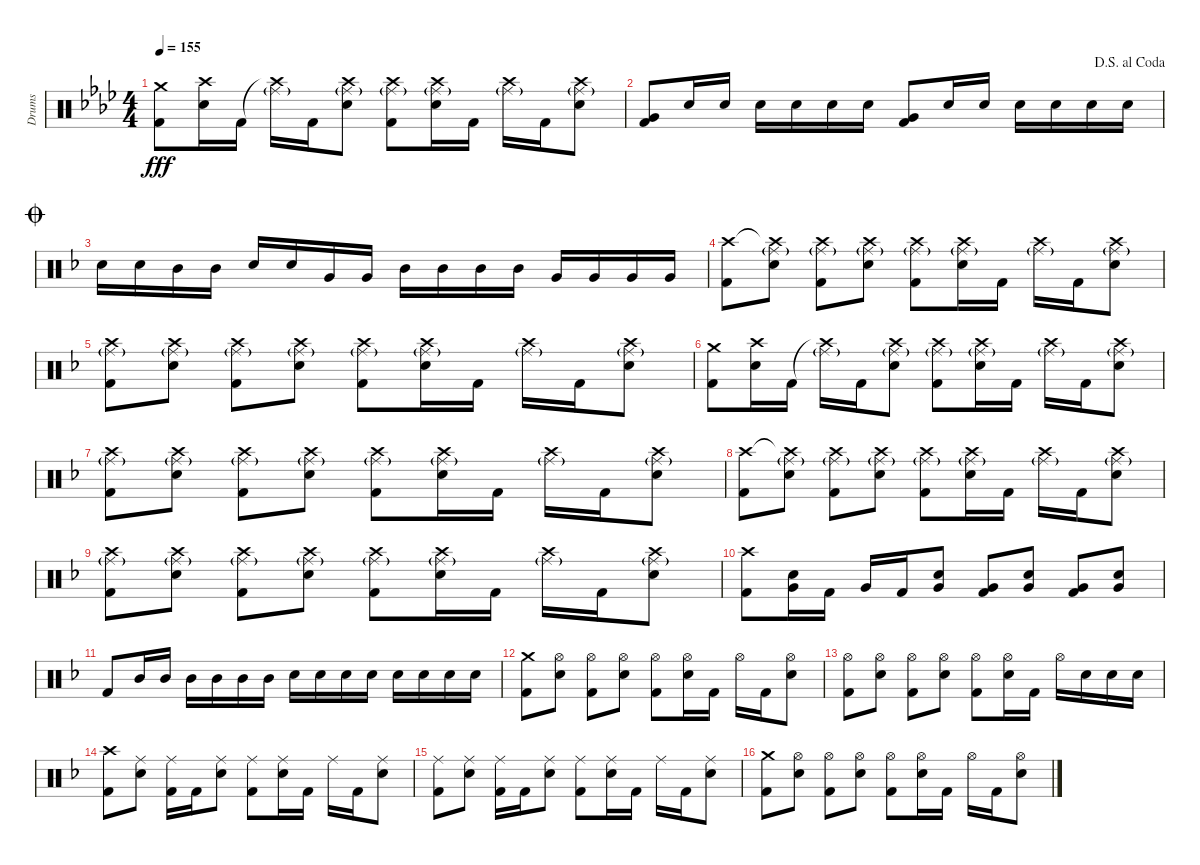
\track ("Drums" "Drums") {instrument percussion}
\staff {score}
\articulation defaults
\ts (4 4)
\tempo 155
\clef neutral
\ks ab
("Crash medium (hit)" "Kick (hit) 2").8{dy fff} ("Crash high (hit)" "Electric Snare (hit)").16 "Kick (hit) 2".16 ("Crash high (hit)"{t} "Ride (middle)"{g}).16 "Kick (hit) 2".16 ("Crash high (hit)" "Ride (middle)"{g} "Electric Snare (hit)").8 ("Crash high (hit)" "Ride (middle)"{g} "Kick (hit) 2").8 ("Crash high (hit)" "Ride (middle)"{g} "Electric Snare (hit)").16 "Kick (hit) 2".16 ("Crash high (hit)" "Ride (middle)"{g}).16 "Kick (hit) 2".16 ("Crash high (hit)" "Ride (middle)"{g} "Electric Snare (hit)").8 |
\jump dalsegnoalcoda
("Very Low Tom (hit)" "Kick (hit) 2").8 "Electric Snare (hit)".16 "Electric Snare (hit)".16 "Electric Snare (hit)".16 "Electric Snare (hit)".16 "Electric Snare (hit)".16 "Electric Snare (hit)".16 ("Very Low Tom (hit)" "Kick (hit) 2").8 "Electric Snare (hit)".16 "Electric Snare (hit)".16 "Electric Snare (hit)".16 "Electric Snare (hit)".16 "Electric Snare (hit)".16 "Electric Snare (hit)".16 |
\jump coda
\ks f "Electric Snare (hit)".16 "Electric Snare (hit)".16 "Mid Tom (hit)".16 "Mid Tom (hit)".16 "Electric Snare (hit)".16 "Electric Snare (hit)".16 "Very Low Tom (hit)".16 "Very Low Tom (hit)".16 "Mid Tom (hit)".16 "Mid Tom (hit)".16 "Mid Tom (hit)".16 "Mid Tom (hit)".16 "Very Low Tom (hit)".16 "Very Low Tom (hit)".16 "Very Low Tom (hit)".16 "Very Low Tom (hit)".16
|
("Crash high (hit)" "Kick (hit) 2").8 ("Crash high (hit)"{t} "Ride (middle)"{g} "Electric Snare (hit)").8 ("Crash high (hit)" "Ride (middle)"{g} "Kick (hit) 2").8 ("Crash high (hit)" "Ride (middle)"{g} "Electric Snare (hit)").8 ("Crash high (hit)" "Ride (middle)"{g} "Kick (hit) 2").8 ("Crash high (hit)" "Ride (middle)"{g} "Electric Snare (hit)").16 "Kick (hit) 2".16 ("Crash high (hit)" "Ride (middle)"{g}).16 "Kick (hit) 2".16 ("Crash high (hit)" "Ride (middle)"{g} "Electric Snare (hit)").8 |
("Crash high (hit)" "Ride (middle)"{g} "Kick (hit) 2").8 ("Crash high (hit)" "Ride (middle)"{g} "Electric Snare (hit)").8 ("Crash high (hit)" "Ride (middle)"{g} "Kick (hit) 2").8 ("Crash high (hit)" "Ride (middle)"{g} "Electric Snare (hit)").8 ("Crash high (hit)" "Ride (middle)"{g} "Kick (hit) 2").8 ("Crash high (hit)" "Ride (middle)"{g} "Electric Snare (hit)").16 "Kick (hit) 2".16 ("Crash high (hit)" "Ride (middle)"{g}).16 "Kick (hit) 2".16 ("Crash high (hit)" "Ride (middle)"{g} "Electric Snare (hit)").8 |
("Crash medium (hit)" "Kick (hit) 2").8 ("Crash high (hit)" "Electric Snare (hit)").16 "Kick (hit) 2".16 ("Crash high (hit)"{t} "Ride (middle)"{g}).16 "Kick (hit) 2".16 ("Crash high (hit)" "Ride (middle)"{g} "Electric Snare (hit)").8 ("Crash high (hit)" "Ride (middle)"{g} "Kick (hit) 2").8 ("Crash high (hit)" "Ride (middle)"{g} "Electric Snare (hit)").16 "Kick (hit) 2".16 ("Crash high (hit)" "Ride (middle)"{g}).16 "Kick (hit) 2".16 ("Crash high (hit)" "Ride (middle)"{g} "Electric Snare (hit)").8 |
("Crash high (hit)" "Ride (middle)"{g} "Kick (hit) 2").8 ("Crash high (hit)" "Ride (middle)"{g} "Electric Snare (hit)").8 ("Crash high (hit)" "Ride (middle)"{g} "Kick (hit) 2").8 ("Crash high (hit)" "Ride (middle)"{g} "Electric Snare (hit)").8 ("Crash high (hit)" "Ride (middle)"{g} "Kick (hit) 2").8 ("Crash high (hit)" "Ride (middle)"{g} "Electric Snare (hit)").16 "Kick (hit) 2".16 ("Crash high (hit)" "Ride (middle)"{g}).16 "Kick (hit) 2".16 ("Crash high (hit)" "Ride (middle)"{g} "Electric Snare (hit)").8 |
("Crash high (hit)" "Kick (hit) 2").8 ("Crash high (hit)"{t} "Ride (middle)"{g} "Electric Snare (hit)").8 ("Crash high (hit)" "Ride (middle)"{g} "Kick (hit) 2").8 ("Crash high (hit)" "Ride (middle)"{g} "Electric Snare (hit)").8 ("Crash high (hit)" "Ride (middle)"{g} "Kick (hit) 2").8 ("Crash high (hit)" "Ride (middle)"{g} "Electric Snare (hit)").16 "Kick (hit) 2".16 ("Crash high (hit)" "Ride (middle)"{g}).16 "Kick (hit) 2".16 ("Crash high (hit)" "Ride (middle)"{g} "Electric Snare (hit)").8 |
("Crash high (hit)" "Ride (middle)"{g} "Kick (hit) 2").8 ("Crash high (hit)" "Ride (middle)"{g} "Electric Snare (hit)").8 ("Crash high (hit)" "Ride (middle)"{g} "Kick (hit) 2").8 ("Crash high (hit)" "Ride (middle)"{g} "Electric Snare (hit)").8 ("Crash high (hit)" "Ride (middle)"{g} "Kick (hit) 2").8 ("Crash high (hit)" "Ride (middle)"{g} "Electric Snare (hit)").16 "Kick (hit) 2".16 ("Crash high (hit)" "Ride (middle)"{g}).16 "Kick (hit) 2".16 ("Crash high (hit)" "Ride (middle)"{g} "Electric Snare (hit)").8 |
("Crash high (hit)" "Kick (hit) 2").8 ("Electric Snare (hit)" "Very Low Tom (hit)").16 "Kick (hit) 2".16 "Very Low Tom (hit)".16 "Kick (hit) 2".16 ("Electric Snare (hit)" "Very Low Tom (hit)").8 ("Very Low Tom (hit)" "Kick (hit) 2").8 ("Electric Snare (hit)" "Very Low Tom (hit)").8 ("Very Low Tom (hit)" "Kick (hit) 2").8 ("Electric Snare (hit)" "Very Low Tom (hit)").8 |
"Kick (hit) 2".8 "Mid Tom (hit)".16 "Mid Tom (hit)".16 "Mid Tom (hit)".16 "Mid Tom (hit)".16 "Mid Tom (hit)".16 "Mid Tom (hit)".16 "Electric Snare (hit)".16 "Electric Snare (hit)".16 "Electric Snare (hit)".16 "Electric Snare (hit)".16 "Electric Snare (hit)".16 "Electric Snare (hit)".16 "Electric Snare (hit)".16 "Electric Snare (hit)".16 |
("Crash medium (hit)" "Kick (hit) 2").8 ("Hi-Hat (open)" "Electric Snare (hit)").8 ("Hi-Hat (open)" "Kick (hit) 2").8 ("Hi-Hat (open)" "Electric Snare (hit)").8 ("Hi-Hat (open)" "Kick (hit) 2").8 ("Hi-Hat (open)" "Electric Snare (hit)").16 "Kick (hit) 2".16 "Hi-Hat (open)".16 "Kick (hit) 2".16 ("Hi-Hat (open)" "Electric Snare (hit)").8 |
("Hi-Hat (open)" "Kick (hit) 2").8 ("Hi-Hat (open)" "Electric Snare (hit)").8 ("Hi-Hat (open)" "Kick (hit) 2").8 ("Hi-Hat (open)" "Electric Snare (hit)").8 ("Hi-Hat (open)" "Kick (hit) 2").8 ("Hi-Hat (open)" "Electric Snare (hit)").16 "Kick (hit) 2".16 "Hi-Hat (open)".16 "Electric Snare (hit)".16 "Electric Snare (hit)".16 "Electric Snare (hit)".16 |
("Crash high (hit)" "Kick (hit) 2").8 ("Ride (middle)" "Electric Snare (hit)").8 ("Ride (middle)" "Kick (hit) 2").16 "Kick (hit) 2".16 ("Ride (middle)" "Electric Snare (hit)").8 ("Ride (middle)" "Kick (hit) 2").8 ("Ride (middle)" "Electric Snare (hit)").16 "Kick (hit) 2".16 "Ride (middle)".16 "Kick (hit) 2".16 ("Ride (middle)" "Electric Snare (hit)").8 |
("Ride (middle)" "Kick (hit) 2").8 ("Ride (middle)" "Electric Snare (hit)").8 ("Ride (middle)" "Kick (hit) 2").16 "Kick (hit) 2".16 ("Ride (middle)" "Electric Snare (hit)").8 ("Ride (middle)" "Kick (hit) 2").8 ("Ride (middle)" "Electric Snare (hit)").16 "Kick (hit) 2".16 "Ride (middle)".16 "Kick (hit) 2".16 ("Ride (middle)" "Electric Snare (hit)").8 |
("Crash medium (hit)" "Kick (hit) 2").8 ("Hi-Hat (open)" "Electric Snare (hit)").8 ("Hi-Hat (open)" "Kick (hit) 2").8 ("Hi-Hat (open)" "Electric Snare (hit)").8 ("Hi-Hat (open)" "Kick (hit) 2").8 ("Hi-Hat (open)" "Electric Snare (hit)").16 "Kick (hit) 2".16 "Hi-Hat (open)".16 "Kick (hit) 2".16 ("Hi-Hat (open)" "Electric Snare (hit)").8
